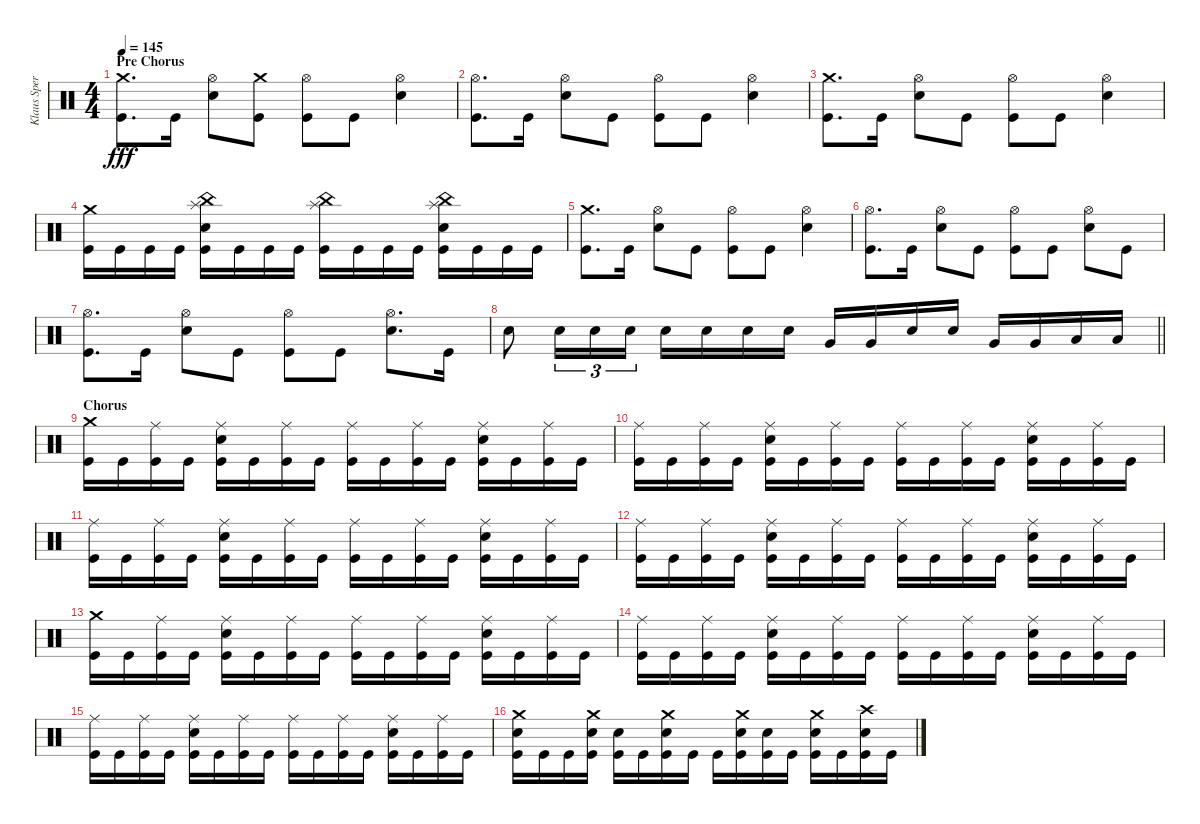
\track ("Klaus Sperling" "Klaus Sper") {instrument percussion}
\staff {score}
\articulation defaults
\ts (4 4)
\section ("" "Pre Chorus")
\tempo 145
\clef neutral
\ks c
("Crash medium (hit)" "Kick (hit)").8{d dy fff} "Kick (hit)".16 ("Hi-Hat (open)" "Electric Snare (hit)").8 ("Crash medium (hit)" "Kick (hit)").8 ("Hi-Hat (open)" "Kick (hit)").8 "Kick (hit)".8 ("Hi-Hat (open)" "Electric Snare (hit)").4 |
("Hi-Hat (open)" "Kick (hit)").8{d} "Kick (hit)".16 ("Hi-Hat (open)" "Electric Snare (hit)").8 "Kick (hit)".8 ("Hi-Hat (open)" "Kick (hit)").8 "Kick (hit)".8 ("Hi-Hat (open)" "Electric Snare (hit)").4 |
("Crash medium (hit)" "Kick (hit)").8{d} "Kick (hit)".16 ("Hi-Hat (open)" "Electric Snare (hit)").8 "Kick (hit)".8 ("Hi-Hat (open)" "Kick (hit)").8 "Kick (hit)".8 ("Hi-Hat (open)" "Electric Snare (hit)").4 |
("Crash medium (hit)" "Kick (hit)").16 "Kick (hit)".16 "Kick (hit)".16 "Kick (hit)".16 ("Splash (hit)" "China (hit)" "Electric Snare (hit)" "Kick (hit)").16 "Kick (hit)".16 "Kick (hit)".16 "Kick (hit)".16 ("Splash (hit)" "China (hit)" "Kick (hit)").16 "Kick (hit)".16 "Kick (hit)".16 "Kick (hit)".16 ("Splash (hit)" "China (hit)" "Electric Snare (hit)" "Kick (hit)").16 "Kick (hit)".16 "Kick (hit)".16 "Kick (hit)".16 |
("Crash medium (hit)" "Kick (hit)").8{d} "Kick (hit)".16 ("Hi-Hat (open)" "Electric Snare (hit)").8 "Kick (hit)".8 ("Hi-Hat (open)" "Kick (hit)").8 "Kick (hit)".8 ("Hi-Hat (open)" "Electric Snare (hit)").4 |
("Hi-Hat (open)" "Kick (hit)").8{d} "Kick (hit)".16 ("Hi-Hat (open)" "Electric Snare (hit)").8 "Kick (hit)".8 ("Hi-Hat (open)" "Kick (hit)").8 "Kick (hit)".8 ("Hi-Hat (open)" "Electric Snare (hit)").8 "Kick (hit)".8 |
("Hi-Hat (open)" "Kick (hit)").8{d} "Kick (hit)".16 ("Hi-Hat (open)" "Electric Snare (hit)").8 "Kick (hit)".8 ("Hi-Hat (open)" "Kick (hit)").8 "Kick (hit)".8 ("Hi-Hat (open)" "Electric Snare (hit)").8{d} "Kick (hit)".16 |
\barLineRight lightlight "Electric Snare (hit)".8 "Electric Snare (hit)".16{tu (3 2)} "Electric Snare (hit)".16{tu (3 2)} "Electric Snare (hit)".16{tu (3 2)} "Electric Snare (hit)".16 "Electric Snare (hit)".16 "Electric Snare (hit)".16 "Electric Snare (hit)".16 "Very Low Tom (hit)".16 "Very Low Tom (hit)".16 "Electric Snare (hit)".16 "Electric Snare (hit)".16 "Very Low Tom (hit)".16 "Very Low Tom (hit)".16 "Low Floor Tom (hit)".16 "Low Floor Tom (hit)".16
|
\section ("" "Chorus")
("Crash medium (hit)" "Kick (hit)").16 "Kick (hit)".16 ("Ride (middle)" "Kick (hit)").16 "Kick (hit)".16 ("Ride (middle)" "Electric Snare (hit)" "Kick (hit)").16 "Kick (hit)".16 ("Ride (middle)" "Kick (hit)").16 "Kick (hit)".16 ("Ride (middle)" "Kick (hit)").16 "Kick (hit)".16 ("Ride (middle)" "Kick (hit)").16 "Kick (hit)".16 ("Ride (middle)" "Electric Snare (hit)" "Kick (hit)").16 "Kick (hit)".16 ("Ride (middle)" "Kick (hit)").16 "Kick (hit)".16 |
("Ride (middle)" "Kick (hit)").16 "Kick (hit)".16 ("Ride (middle)" "Kick (hit)").16 "Kick (hit)".16 ("Ride (middle)" "Electric Snare (hit)" "Kick (hit)").16 "Kick (hit)".16 ("Ride (middle)" "Kick (hit)").16 "Kick (hit)".16 ("Ride (middle)" "Kick (hit)").16 "Kick (hit)".16 ("Ride (middle)" "Kick (hit)").16 "Kick (hit)".16 ("Ride (middle)" "Electric Snare (hit)" "Kick (hit)").16 "Kick (hit)".16 ("Ride (middle)" "Kick (hit)").16 "Kick (hit)".16 |
("Ride (middle)" "Kick (hit)").16 "Kick (hit)".16 ("Ride (middle)" "Kick (hit)").16 "Kick (hit)".16 ("Ride (middle)" "Electric Snare (hit)" "Kick (hit)").16 "Kick (hit)".16 ("Ride (middle)" "Kick (hit)").16 "Kick (hit)".16 ("Ride (middle)" "Kick (hit)").16 "Kick (hit)".16 ("Ride (middle)" "Kick (hit)").16 "Kick (hit)".16 ("Ride (middle)" "Electric Snare (hit)" "Kick (hit)").16 "Kick (hit)".16 ("Ride (middle)" "Kick (hit)").16 "Kick (hit)".16 |
("Ride (middle)" "Kick (hit)").16 "Kick (hit)".16 ("Ride (middle)" "Kick (hit)").16 "Kick (hit)".16 ("Ride (middle)" "Electric Snare (hit)" "Kick (hit)").16 "Kick (hit)".16 ("Ride (middle)" "Kick (hit)").16 "Kick (hit)".16 ("Ride (middle)" "Kick (hit)").16 "Kick (hit)".16 ("Ride (middle)" "Kick (hit)").16 "Kick (hit)".16 ("Ride (middle)" "Electric Snare (hit)" "Kick (hit)").16 "Kick (hit)".16 ("Ride (middle)" "Kick (hit)").16 "Kick (hit)".16 |
("Crash medium (hit)" "Kick (hit)").16 "Kick (hit)".16 ("Ride (middle)" "Kick (hit)").16 "Kick (hit)".16 ("Ride (middle)" "Electric Snare (hit)" "Kick (hit)").16 "Kick (hit)".16 ("Ride (middle)" "Kick (hit)").16 "Kick (hit)".16 ("Ride (middle)" "Kick (hit)").16 "Kick (hit)".16 ("Ride (middle)" "Kick (hit)").16 "Kick (hit)".16 ("Ride (middle)" "Electric Snare (hit)" "Kick (hit)").16 "Kick (hit)".16 ("Ride (middle)" "Kick (hit)").16 "Kick (hit)".16 |
("Ride (middle)" "Kick (hit)").16 "Kick (hit)".16 ("Ride (middle)" "Kick (hit)").16 "Kick (hit)".16 ("Ride (middle)" "Electric Snare (hit)" "Kick (hit)").16 "Kick (hit)".16 ("Ride (middle)" "Kick (hit)").16 "Kick (hit)".16 ("Ride (middle)" "Kick (hit)").16 "Kick (hit)".16 ("Ride (middle)" "Kick (hit)").16 "Kick (hit)".16 ("Ride (middle)" "Electric Snare (hit)" "Kick (hit)").16 "Kick (hit)".16 ("Ride (middle)" "Kick (hit)").16 "Kick (hit)".16 |
("Ride (middle)" "Kick (hit)").16 "Kick (hit)".16 ("Ride (middle)" "Kick (hit)").16 "Kick (hit)".16 ("Ride (middle)" "Electric Snare (hit)" "Kick (hit)").16 "Kick (hit)".16 ("Ride (middle)" "Kick (hit)").16 "Kick (hit)".16 ("Ride (middle)" "Kick (hit)").16 "Kick (hit)".16 ("Ride (middle)" "Kick (hit)").16 "Kick (hit)".16 ("Ride (middle)" "Electric Snare (hit)" "Kick (hit)").16 "Kick (hit)".16 ("Ride (middle)" "Kick (hit)").16 "Kick (hit)".16 |
("Crash medium (hit)" "Electric Snare (hit)" "Kick (hit)").16 "Kick (hit)".16 "Kick (hit)".16 ("Crash medium (hit)" "Electric Snare (hit)" "Kick (hit)").16 ("Electric Snare (hit)" "Kick (hit)").16 "Kick (hit)".16 ("Crash medium (hit)" "Electric Snare (hit)" "Kick (hit)").16 "Kick (hit)".16 "Kick (hit)".16 ("Crash medium (hit)" "Electric Snare (hit)" "Kick (hit)").16 ("Electric Snare (hit)" "Kick (hit)").16 "Kick (hit)".16 ("Crash medium (hit)" "Electric Snare (hit)" "Kick (hit)").16 "Kick (hit)".16 ("Crash high (hit)" "Electric Snare (hit)" "Kick (hit)").16 "Kick (hit)".16
